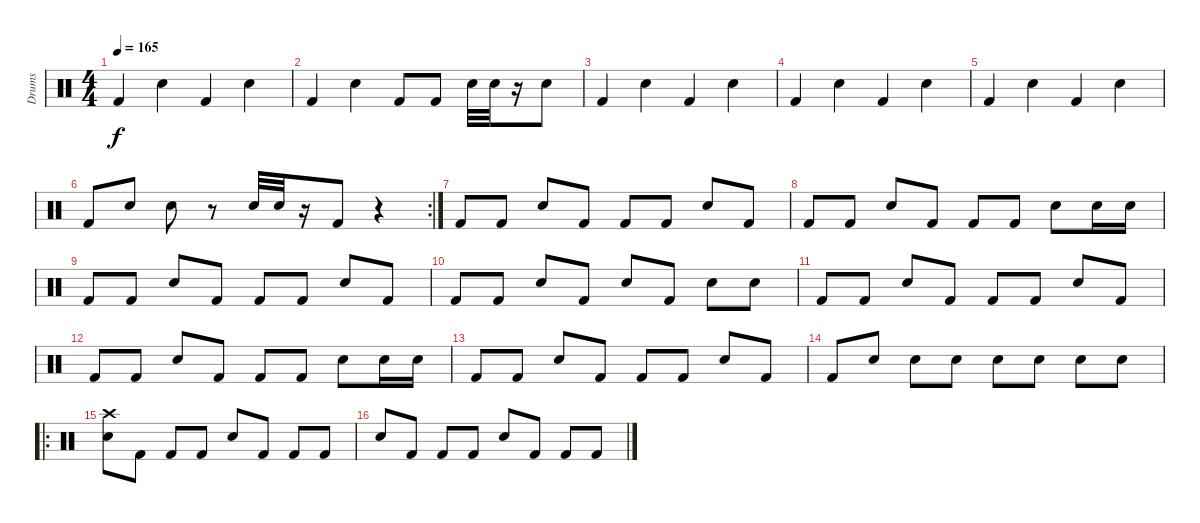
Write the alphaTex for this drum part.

\track ("Drums" "Drums") {instrument percussion}
\staff {score}
\articulation defaults
\ts (4 4)
\tempo 165
\clef neutral
\ks c "Kick (hit) 2".4{dy f} "Snare (hit) 2".4 "Kick (hit) 2".4 "Snare (hit) 2".4
|
"Kick (hit) 2".4 "Snare (hit) 2".4 "Kick (hit) 2".8 "Kick (hit) 2".8 "Snare (hit) 2".32 "Snare (hit) 2".32 r.16 "Snare (hit) 2".8 |
"Kick (hit) 2".4 "Snare (hit) 2".4 "Kick (hit) 2".4 "Snare (hit) 2".4 |
"Kick (hit) 2".4 "Snare (hit) 2".4 "Kick (hit) 2".4 "Snare (hit) 2".4 |
"Kick (hit) 2".4 "Snare (hit) 2".4 "Kick (hit) 2".4 "Snare (hit) 2".4 |
\rc 2 "Kick (hit) 2".8 "Snare (hit) 2".8 "Snare (hit) 2".8
r.8 "Snare (hit) 2".32 "Snare (hit) 2".32 r.16 "Kick (hit) 2".8 r.4 |
"Kick (hit) 2".8 "Kick (hit) 2".8 "Snare (hit) 2".8 "Kick (hit) 2".8 "Kick (hit) 2".8 "Kick (hit) 2".8 "Snare (hit) 2".8 "Kick (hit) 2".8 |
"Kick (hit) 2".8 "Kick (hit) 2".8 "Snare (hit) 2".8 "Kick (hit) 2".8 "Kick (hit) 2".8 "Kick (hit) 2".8 "Snare (hit) 2".8 "Snare (hit) 2".16 "Snare (hit) 2".16 |
"Kick (hit) 2".8 "Kick (hit) 2".8 "Snare (hit) 2".8 "Kick (hit) 2".8 "Kick (hit) 2".8 "Kick (hit) 2".8 "Snare (hit) 2".8 "Kick (hit) 2".8 |
"Kick (hit) 2".8 "Kick (hit) 2".8 "Snare (hit) 2".8 "Kick (hit) 2".8 "Snare (hit) 2".8 "Kick (hit) 2".8 "Snare (hit) 2".8 "Snare (hit) 2".8 |
"Kick (hit) 2".8 "Kick (hit) 2".8 "Snare (hit) 2".8 "Kick (hit) 2".8 "Kick (hit) 2".8 "Kick (hit) 2".8 "Snare (hit) 2".8 "Kick (hit) 2".8 |
"Kick (hit) 2".8 "Kick (hit) 2".8 "Snare (hit) 2".8 "Kick (hit) 2".8 "Kick (hit) 2".8 "Kick (hit) 2".8 "Snare (hit) 2".8 "Snare (hit) 2".16 "Snare (hit) 2".16 |
"Kick (hit) 2".8 "Kick (hit) 2".8 "Snare (hit) 2".8 "Kick (hit) 2".8 "Kick (hit) 2".8 "Kick (hit) 2".8 "Snare (hit) 2".8 "Kick (hit) 2".8 |
"Kick (hit) 2".8 "Snare (hit) 2".8 "Snare (hit) 2".8 "Snare (hit) 2".8 "Snare (hit) 2".8 "Snare (hit) 2".8 "Snare (hit) 2".8 "Snare (hit) 2".8 |
\ro
("Snare (hit) 2" "Crash high (hit)").8 "Kick (hit) 2".8 "Kick (hit) 2".8 "Kick (hit) 2".8 "Snare (hit) 2".8 "Kick (hit) 2".8 "Kick (hit) 2".8 "Kick (hit) 2".8 |
"Snare (hit) 2".8 "Kick (hit) 2".8 "Kick (hit) 2".8 "Kick (hit) 2".8 "Snare (hit) 2".8 "Kick (hit) 2".8 "Kick (hit) 2".8 "Kick (hit) 2".8
